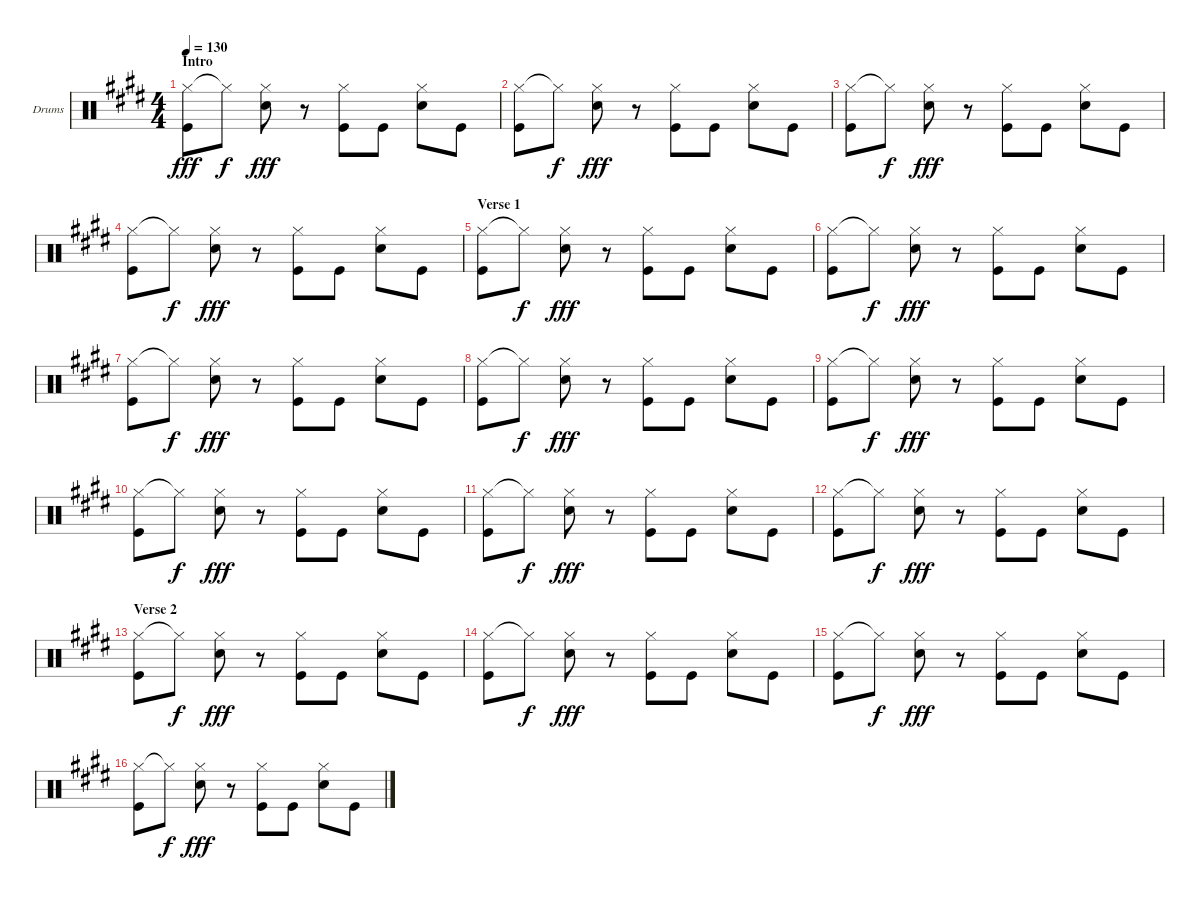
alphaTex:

\defaultSystemsLayout 4
\bracketExtendMode groupsimilarinstruments
\firstSystemTrackNameOrientation horizontal
\otherSystemsTrackNameOrientation horizontal
\chordDiagramsInScore
\track ("Drums" "Drums") {instrument percussion}
\staff {score}
\articulation defaults
\ts (4 4)
\section ("" "Intro")
\tempo 130
\clef neutral
\scale
0.318182
\ks e
("Hi-Hat (closed)" "Kick (hit)").8{dy fff} "Hi-Hat (closed)"{t}.8{dy f} ("Hi-Hat (closed)" "Snare (hit) 2").8{dy fff} r.8 ("Hi-Hat (closed)" "Kick (hit)").8 "Kick (hit)".8 ("Hi-Hat (closed)" "Snare (hit) 2").8 "Kick (hit)".8 |
\scale
0.227273 ("Hi-Hat (closed)" "Kick (hit)").8 "Hi-Hat (closed)"{t}.8{dy f} ("Hi-Hat (closed)" "Snare (hit) 2").8{dy fff} r.8 ("Hi-Hat (closed)" "Kick (hit)").8 "Kick (hit)".8 ("Hi-Hat (closed)" "Snare (hit) 2").8 "Kick (hit)".8 |
\scale
0.227273 ("Hi-Hat (closed)" "Kick (hit)").8 "Hi-Hat (closed)"{t}.8{dy f} ("Hi-Hat (closed)" "Snare (hit) 2").8{dy fff} r.8 ("Hi-Hat (closed)" "Kick (hit)").8 "Kick (hit)".8 ("Hi-Hat (closed)" "Snare (hit) 2").8 "Kick (hit)".8 |
\scale
0.227273 ("Hi-Hat (closed)" "Kick (hit)").8 "Hi-Hat (closed)"{t}.8{dy f} ("Hi-Hat (closed)" "Snare (hit) 2").8{dy fff} r.8 ("Hi-Hat (closed)" "Kick (hit)").8 "Kick (hit)".8 ("Hi-Hat (closed)" "Snare (hit) 2").8 "Kick (hit)".8 |
\section ("" "Verse 1")
\scale
0.25 ("Hi-Hat (closed)" "Kick (hit)").8 "Hi-Hat (closed)"{t}.8{dy f} ("Hi-Hat (closed)" "Snare (hit) 2").8{dy fff} r.8 ("Hi-Hat (closed)" "Kick (hit)").8 "Kick (hit)".8 ("Hi-Hat (closed)" "Snare (hit) 2").8 "Kick (hit)".8 |
\scale
0.25 ("Hi-Hat (closed)" "Kick (hit)").8 "Hi-Hat (closed)"{t}.8{dy f} ("Hi-Hat (closed)" "Snare (hit) 2").8{dy fff} r.8 ("Hi-Hat (closed)" "Kick (hit)").8 "Kick (hit)".8 ("Hi-Hat (closed)" "Snare (hit) 2").8 "Kick (hit)".8 |
\scale
0.25 ("Hi-Hat (closed)" "Kick (hit)").8 "Hi-Hat (closed)"{t}.8{dy f} ("Hi-Hat (closed)" "Snare (hit) 2").8{dy fff} r.8 ("Hi-Hat (closed)" "Kick (hit)").8 "Kick (hit)".8 ("Hi-Hat (closed)" "Snare (hit) 2").8 "Kick (hit)".8 |
\scale
0.25 ("Hi-Hat (closed)" "Kick (hit)").8 "Hi-Hat (closed)"{t}.8{dy f} ("Hi-Hat (closed)" "Snare (hit) 2").8{dy fff} r.8 ("Hi-Hat (closed)" "Kick (hit)").8 "Kick (hit)".8 ("Hi-Hat (closed)" "Snare (hit) 2").8 "Kick (hit)".8 |
\scale
0.25 ("Hi-Hat (closed)" "Kick (hit)").8 "Hi-Hat (closed)"{t}.8{dy f} ("Hi-Hat (closed)" "Snare (hit) 2").8{dy fff} r.8 ("Hi-Hat (closed)" "Kick (hit)").8 "Kick (hit)".8 ("Hi-Hat (closed)" "Snare (hit) 2").8 "Kick (hit)".8 |
\scale
0.25 ("Hi-Hat (closed)" "Kick (hit)").8 "Hi-Hat (closed)"{t}.8{dy f} ("Hi-Hat (closed)" "Snare (hit) 2").8{dy fff} r.8 ("Hi-Hat (closed)" "Kick (hit)").8 "Kick (hit)".8 ("Hi-Hat (closed)" "Snare (hit) 2").8 "Kick (hit)".8 |
\scale
0.25 ("Hi-Hat (closed)" "Kick (hit)").8 "Hi-Hat (closed)"{t}.8{dy f} ("Hi-Hat (closed)" "Snare (hit) 2").8{dy fff} r.8 ("Hi-Hat (closed)" "Kick (hit)").8 "Kick (hit)".8 ("Hi-Hat (closed)" "Snare (hit) 2").8 "Kick (hit)".8 |
\scale
0.25 ("Hi-Hat (closed)" "Kick (hit)").8 "Hi-Hat (closed)"{t}.8{dy f} ("Hi-Hat (closed)" "Snare (hit) 2").8{dy fff} r.8 ("Hi-Hat (closed)" "Kick (hit)").8 "Kick (hit)".8 ("Hi-Hat (closed)" "Snare (hit) 2").8 "Kick (hit)".8 |
\section ("" "Verse 2")
\scale
0.25 ("Hi-Hat (closed)" "Kick (hit)").8 "Hi-Hat (closed)"{t}.8{dy f} ("Hi-Hat (closed)" "Snare (hit) 2").8{dy fff} r.8 ("Hi-Hat (closed)" "Kick (hit)").8 "Kick (hit)".8 ("Hi-Hat (closed)" "Snare (hit) 2").8 "Kick (hit)".8 |
\scale
0.25 ("Hi-Hat (closed)" "Kick (hit)").8 "Hi-Hat (closed)"{t}.8{dy f} ("Hi-Hat (closed)" "Snare (hit) 2").8{dy fff} r.8 ("Hi-Hat (closed)" "Kick (hit)").8 "Kick (hit)".8 ("Hi-Hat (closed)" "Snare (hit) 2").8 "Kick (hit)".8 |
\scale
0.25 ("Hi-Hat (closed)" "Kick (hit)").8 "Hi-Hat (closed)"{t}.8{dy f} ("Hi-Hat (closed)" "Snare (hit) 2").8{dy fff} r.8 ("Hi-Hat (closed)" "Kick (hit)").8 "Kick (hit)".8 ("Hi-Hat (closed)" "Snare (hit) 2").8 "Kick (hit)".8 |
\scale
0.25 ("Hi-Hat (closed)" "Kick (hit)").8 "Hi-Hat (closed)"{t}.8{dy f} ("Hi-Hat (closed)" "Snare (hit) 2").8{dy fff} r.8 ("Hi-Hat (closed)" "Kick (hit)").8 "Kick (hit)".8 ("Hi-Hat (closed)" "Snare (hit) 2").8 "Kick (hit)".8
